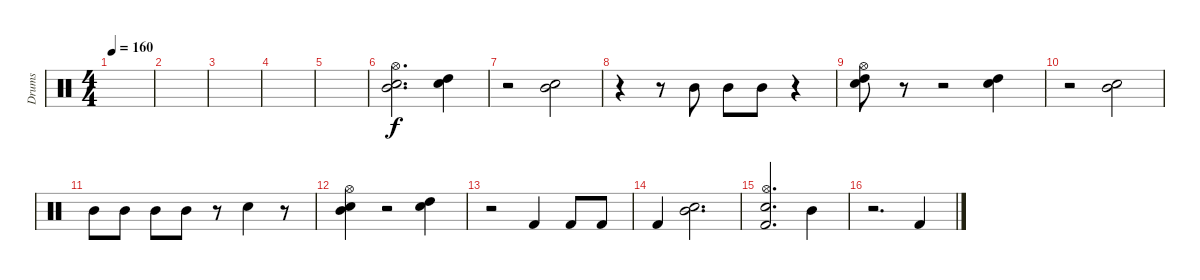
\track ("Drums" "Drums") {instrument percussion}
\staff {score}
\articulation defaults
\ts (4 4)
\tempo 160
\clef neutral
\ks c
|
|
|
|
|
("Mid Tom (hit)" "Snare (hit) 2" "Hi-Hat (open)").2{d} ("High Tom (hit)" "Snare (hit) 2").4 |
r.2 ("Mid Tom (hit)" "Snare (hit) 2").2 |
r.4 r.8 "Mid Tom (hit)".8 "Mid Tom (hit)".8 "Mid Tom (hit)".8 r.4 |
("High Tom (hit)" "Snare (hit) 2" "Hi-Hat (open)").8 r.8 r.2 ("High Tom (hit)" "Snare (hit) 2").4 |
r.2 ("Mid Tom (hit)" "Snare (hit) 2").2 |
"Mid Tom (hit)".8 "Mid Tom (hit)".8 "Mid Tom (hit)".8 "Mid Tom (hit)".8 r.8 "Snare (hit) 2".4 r.8 |
("Mid Tom (hit)" "Snare (hit) 2" "Hi-Hat (open)").4 r.2 ("High Tom (hit)" "Snare (hit) 2").4 |
r.2 "Kick (hit) 2".4 "Kick (hit) 2".8 "Kick (hit) 2".8 |
"Kick (hit) 2".4 ("Mid Tom (hit)" "Snare (hit) 2").2{d} |
("Kick (hit) 2" "Snare (hit) 2" "Hi-Hat (open)").2{d} "Mid Tom (hit)".4 |
r.2{d} "Kick (hit) 2".4
